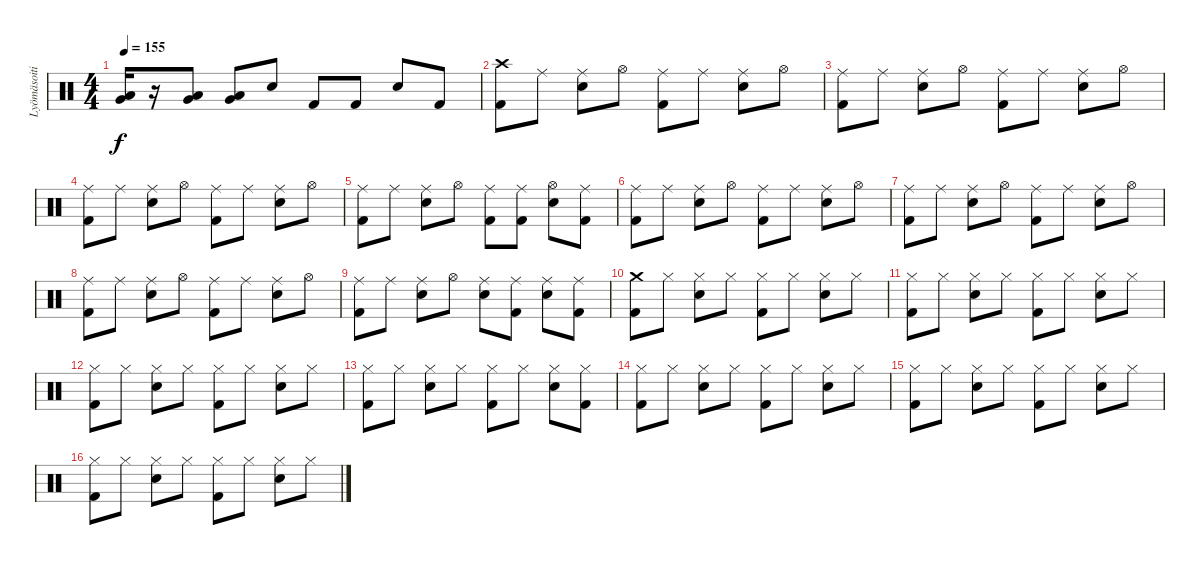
\track ("Lyömäsoitin" "Lyömäsoiti") {instrument percussion}
\staff {score}
\articulation defaults
\ts (4 4)
\tempo 155
\clef neutral
\ks c
("Low Tom (hit)" "Very Low Tom (hit)").16{dy f} r.16 ("Low Tom (hit)" "Very Low Tom (hit)").8 ("Very Low Tom (hit)" "Low Floor Tom (hit)").8 "Snare (hit) 2".8 "Kick (hit) 2".8 "Kick (hit) 2".8 "Snare (hit) 2".8 "Kick (hit) 2".8 |
("Crash high (hit)" "Kick (hit) 2").8 "Ride (middle)".8 ("Ride (middle)" "Snare (hit) 2").8 "Hi-Hat (open)".8 ("Ride (middle)" "Kick (hit) 2").8 "Ride (middle)".8 ("Ride (middle)" "Snare (hit) 2").8 "Hi-Hat (open)".8 |
("Ride (middle)" "Kick (hit) 2").8 "Ride (middle)".8 ("Ride (middle)" "Snare (hit) 2").8 "Hi-Hat (open)".8 ("Ride (middle)" "Kick (hit) 2").8 "Ride (middle)".8 ("Ride (middle)" "Snare (hit) 2").8 "Hi-Hat (open)".8 |
("Ride (middle)" "Kick (hit) 2").8 "Ride (middle)".8 ("Ride (middle)" "Snare (hit) 2").8 "Hi-Hat (open)".8 ("Ride (middle)" "Kick (hit) 2").8 "Ride (middle)".8 ("Ride (middle)" "Snare (hit) 2").8 "Hi-Hat (open)".8 |
("Ride (middle)" "Kick (hit) 2").8 "Ride (middle)".8 ("Ride (middle)" "Snare (hit) 2").8 "Hi-Hat (open)".8 ("Ride (middle)" "Kick (hit) 2").8 ("Ride (middle)" "Kick (hit) 2").8 ("Hi-Hat (open)" "Snare (hit) 2").8 ("Ride (middle)" "Kick (hit) 2").8 |
("Ride (middle)" "Kick (hit) 2").8 "Ride (middle)".8 ("Ride (middle)" "Snare (hit) 2").8 "Hi-Hat (open)".8 ("Ride (middle)" "Kick (hit) 2").8 "Ride (middle)".8 ("Ride (middle)" "Snare (hit) 2").8 "Hi-Hat (open)".8 |
("Ride (middle)" "Kick (hit) 2").8 "Ride (middle)".8 ("Ride (middle)" "Snare (hit) 2").8 "Hi-Hat (open)".8 ("Ride (middle)" "Kick (hit) 2").8 "Ride (middle)".8 ("Ride (middle)" "Snare (hit) 2").8 "Hi-Hat (open)".8 |
("Ride (middle)" "Kick (hit) 2").8 "Ride (middle)".8 ("Ride (middle)" "Snare (hit) 2").8 "Hi-Hat (open)".8 ("Ride (middle)" "Kick (hit) 2").8 "Ride (middle)".8 ("Ride (middle)" "Snare (hit) 2").8 "Hi-Hat (open)".8 |
("Ride (middle)" "Kick (hit) 2").8 "Ride (middle)".8 ("Ride (middle)" "Snare (hit) 2").8 "Hi-Hat (open)".8 ("Ride (middle)" "Snare (hit) 2").8 ("Ride (middle)" "Kick (hit) 2").8 ("Ride (middle)" "Snare (hit) 2").8 ("Ride (middle)" "Kick (hit) 2").8 |
("Crash medium (hit)" "Kick (hit) 2").8 "Hi-Hat (closed)".8 ("Hi-Hat (closed)" "Snare (hit) 2").8 "Hi-Hat (closed)".8 ("Hi-Hat (closed)" "Kick (hit) 2").8 "Hi-Hat (closed)".8 ("Hi-Hat (closed)" "Snare (hit) 2").8 "Hi-Hat (closed)".8 |
("Hi-Hat (closed)" "Kick (hit) 2").8 "Hi-Hat (closed)".8 ("Hi-Hat (closed)" "Snare (hit) 2").8 "Hi-Hat (closed)".8 ("Hi-Hat (closed)" "Kick (hit) 2").8 "Hi-Hat (closed)".8 ("Hi-Hat (closed)" "Snare (hit) 2").8 "Hi-Hat (closed)".8 |
("Hi-Hat (closed)" "Kick (hit) 2").8 "Hi-Hat (closed)".8 ("Hi-Hat (closed)" "Snare (hit) 2").8 "Hi-Hat (closed)".8 ("Hi-Hat (closed)" "Kick (hit) 2").8 "Hi-Hat (closed)".8 ("Hi-Hat (closed)" "Snare (hit) 2").8 "Hi-Hat (closed)".8 |
("Hi-Hat (closed)" "Kick (hit) 2").8 "Hi-Hat (closed)".8 ("Hi-Hat (closed)" "Snare (hit) 2").8 "Hi-Hat (closed)".8 ("Hi-Hat (closed)" "Kick (hit) 2").8 "Hi-Hat (closed)".8 ("Hi-Hat (closed)" "Snare (hit) 2").8 ("Hi-Hat (closed)" "Kick (hit) 2").8 |
("Hi-Hat (closed)" "Kick (hit) 2").8 "Hi-Hat (closed)".8 ("Hi-Hat (closed)" "Snare (hit) 2").8 "Hi-Hat (closed)".8 ("Hi-Hat (closed)" "Kick (hit) 2").8 "Hi-Hat (closed)".8 ("Hi-Hat (closed)" "Snare (hit) 2").8 "Hi-Hat (closed)".8 |
("Hi-Hat (closed)" "Kick (hit) 2").8 "Hi-Hat (closed)".8 ("Hi-Hat (closed)" "Snare (hit) 2").8 "Hi-Hat (closed)".8 ("Hi-Hat (closed)" "Kick (hit) 2").8 "Hi-Hat (closed)".8 ("Hi-Hat (closed)" "Snare (hit) 2").8 "Hi-Hat (closed)".8 |
("Hi-Hat (closed)" "Kick (hit) 2").8 "Hi-Hat (closed)".8 ("Hi-Hat (closed)" "Snare (hit) 2").8 "Hi-Hat (closed)".8 ("Hi-Hat (closed)" "Kick (hit) 2").8 "Hi-Hat (closed)".8 ("Hi-Hat (closed)" "Snare (hit) 2").8 "Hi-Hat (closed)".8
